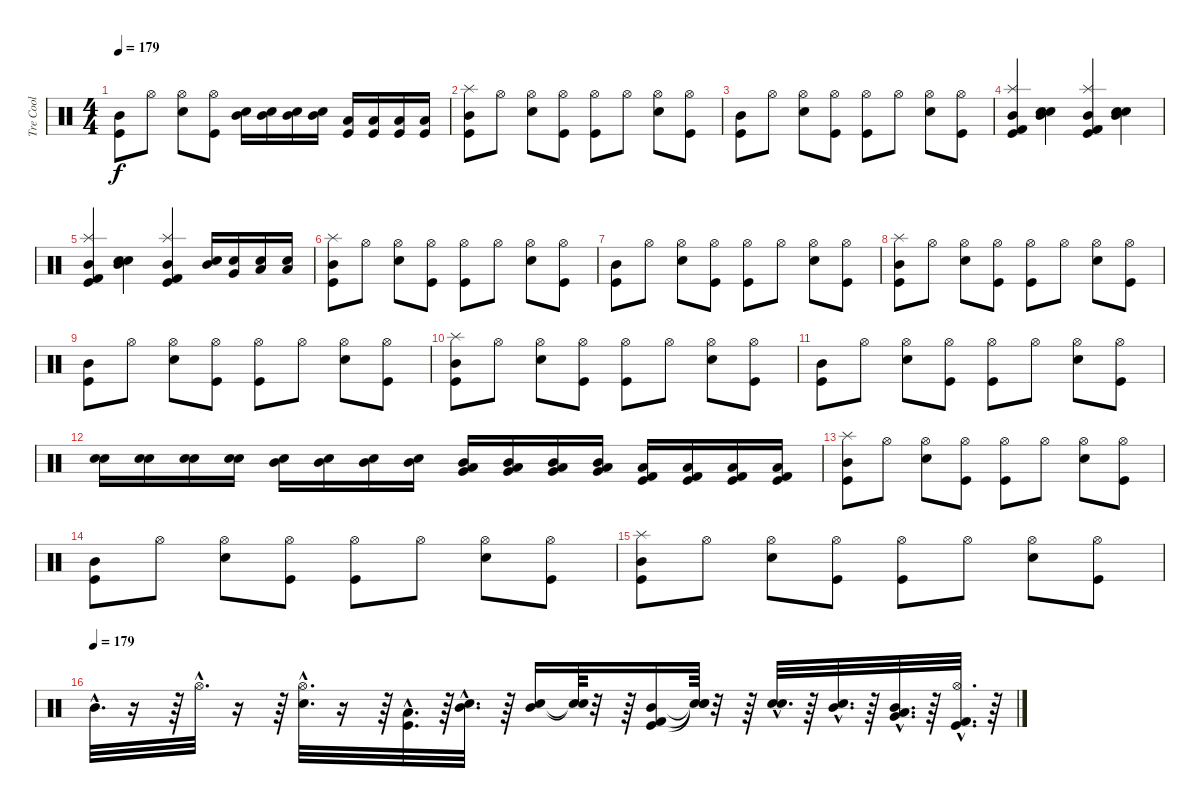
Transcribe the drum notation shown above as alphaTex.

\track ("Tre Cool" "Tre Cool") {instrument percussion}
\staff {score}
\articulation defaults
\ts (4 4)
\tempo 179
\clef neutral
\ks c
("Mid Tom (hit)" "Kick (hit)").8{dy f} "Hi-Hat (open)".8 ("Hi-Hat (open)" "Snare (hit) 2").8 ("Hi-Hat (open)" "Kick (hit)").8 ("Snare (hit) 2" "Mid Tom (hit)").16 ("Snare (hit) 2" "Mid Tom (hit)").16 ("Snare (hit) 2" "Mid Tom (hit)").16 ("Snare (hit) 2" "Mid Tom (hit)").16 ("Kick (hit)" "Low Floor Tom (hit)").16 ("Kick (hit)" "Low Floor Tom (hit)").16 ("Kick (hit)" "Low Floor Tom (hit)").16 ("Kick (hit)" "Low Floor Tom (hit)").16 |
("Splash (hit)" "Mid Tom (hit)" "Kick (hit)").8 "Hi-Hat (open)".8 ("Hi-Hat (open)" "Snare (hit) 2").8 ("Hi-Hat (open)" "Kick (hit)").8 ("Hi-Hat (open)" "Kick (hit)").8 "Hi-Hat (open)".8 ("Hi-Hat (open)" "Snare (hit) 2").8 ("Hi-Hat (open)" "Kick (hit)").8 |
("Mid Tom (hit)" "Kick (hit)").8 "Hi-Hat (open)".8 ("Hi-Hat (open)" "Snare (hit) 2").8 ("Hi-Hat (open)" "Kick (hit)").8 ("Hi-Hat (open)" "Kick (hit)").8 "Hi-Hat (open)".8 ("Hi-Hat (open)" "Snare (hit) 2").8 ("Hi-Hat (open)" "Kick (hit)").8 |
("Mid Tom (hit)" "Kick (hit)" "Splash (hit)" "Kick (hit) 2").4 ("Mid Tom (hit)" "Snare (hit) 2" "Electric Snare (hit)").4 ("Mid Tom (hit)" "Kick (hit)" "Splash (hit)" "Kick (hit) 2").4 ("Mid Tom (hit)" "Snare (hit) 2" "Electric Snare (hit)").4 |
("Mid Tom (hit)" "Kick (hit)" "Splash (hit)" "Kick (hit) 2").4 ("Mid Tom (hit)" "Snare (hit) 2" "Electric Snare (hit)").4 ("Mid Tom (hit)" "Kick (hit)" "Splash (hit)" "Kick (hit) 2").4 ("Electric Snare (hit)" "Mid Tom (hit)").16 ("Electric Snare (hit)" "Very Low Tom (hit)").16 ("Electric Snare (hit)" "Low Tom (hit)").16 ("Electric Snare (hit)" "Low Tom (hit)").16 |
("Splash (hit)" "Mid Tom (hit)" "Kick (hit)").8 "Hi-Hat (open)".8 ("Hi-Hat (open)" "Snare (hit) 2").8 ("Hi-Hat (open)" "Kick (hit)").8 ("Hi-Hat (open)" "Kick (hit)").8 "Hi-Hat (open)".8 ("Hi-Hat (open)" "Snare (hit) 2").8 ("Hi-Hat (open)" "Kick (hit)").8 |
("Mid Tom (hit)" "Kick (hit)").8 "Hi-Hat (open)".8 ("Hi-Hat (open)" "Snare (hit) 2").8 ("Hi-Hat (open)" "Kick (hit)").8 ("Hi-Hat (open)" "Kick (hit)").8 "Hi-Hat (open)".8 ("Hi-Hat (open)" "Snare (hit) 2").8 ("Hi-Hat (open)" "Kick (hit)").8 |
("Splash (hit)" "Mid Tom (hit)" "Kick (hit)").8 "Hi-Hat (open)".8 ("Hi-Hat (open)" "Snare (hit) 2").8 ("Hi-Hat (open)" "Kick (hit)").8 ("Hi-Hat (open)" "Kick (hit)").8 "Hi-Hat (open)".8 ("Hi-Hat (open)" "Snare (hit) 2").8 ("Hi-Hat (open)" "Kick (hit)").8 |
("Mid Tom (hit)" "Kick (hit)").8 "Hi-Hat (open)".8 ("Hi-Hat (open)" "Snare (hit) 2").8 ("Hi-Hat (open)" "Kick (hit)").8 ("Hi-Hat (open)" "Kick (hit)").8 "Hi-Hat (open)".8 ("Hi-Hat (open)" "Snare (hit) 2").8 ("Hi-Hat (open)" "Kick (hit)").8 |
("Splash (hit)" "Mid Tom (hit)" "Kick (hit)").8 "Hi-Hat (open)".8 ("Hi-Hat (open)" "Snare (hit) 2").8 ("Hi-Hat (open)" "Kick (hit)").8 ("Hi-Hat (open)" "Kick (hit)").8 "Hi-Hat (open)".8 ("Hi-Hat (open)" "Snare (hit) 2").8 ("Hi-Hat (open)" "Kick (hit)").8 |
("Mid Tom (hit)" "Kick (hit)").8 "Hi-Hat (open)".8 ("Hi-Hat (open)" "Snare (hit) 2").8 ("Hi-Hat (open)" "Kick (hit)").8 ("Hi-Hat (open)" "Kick (hit)").8 "Hi-Hat (open)".8 ("Hi-Hat (open)" "Snare (hit) 2").8 ("Hi-Hat (open)" "Kick (hit)").8 |
("Electric Snare (hit)" "Snare (hit) 2").16 ("Electric Snare (hit)" "Snare (hit) 2").16 ("Electric Snare (hit)" "Snare (hit) 2").16 ("Electric Snare (hit)" "Snare (hit) 2").16 ("Snare (hit) 2" "Mid Tom (hit)").16 ("Snare (hit) 2" "Mid Tom (hit)").16 ("Snare (hit) 2" "Mid Tom (hit)").16 ("Snare (hit) 2" "Mid Tom (hit)").16 ("Mid Tom (hit)" "Very Low Tom (hit)" "Low Floor Tom (hit)").16 ("Mid Tom (hit)" "Very Low Tom (hit)" "Low Floor Tom (hit)").16 ("Mid Tom (hit)" "Very Low Tom (hit)" "Low Floor Tom (hit)").16 ("Mid Tom (hit)" "Very Low Tom (hit)" "Low Floor Tom (hit)").16 ("Kick (hit)" "Kick (hit) 2" "Low Floor Tom (hit)").16 ("Kick (hit)" "Kick (hit) 2" "Low Floor Tom (hit)").16 ("Kick (hit)" "Kick (hit) 2" "Low Floor Tom (hit)").16 ("Kick (hit)" "Kick (hit) 2" "Low Floor Tom (hit)").16 |
("Splash (hit)" "Mid Tom (hit)" "Kick (hit)").8 "Hi-Hat (open)".8 ("Hi-Hat (open)" "Snare (hit) 2").8 ("Hi-Hat (open)" "Kick (hit)").8 ("Hi-Hat (open)" "Kick (hit)").8 "Hi-Hat (open)".8 ("Hi-Hat (open)" "Snare (hit) 2").8 ("Hi-Hat (open)" "Kick (hit)").8 |
("Mid Tom (hit)" "Kick (hit)").8 "Hi-Hat (open)".8 ("Hi-Hat (open)" "Snare (hit) 2").8 ("Hi-Hat (open)" "Kick (hit)").8 ("Hi-Hat (open)" "Kick (hit)").8 "Hi-Hat (open)".8 ("Hi-Hat (open)" "Snare (hit) 2").8 ("Hi-Hat (open)" "Kick (hit)").8 |
("Splash (hit)" "Mid Tom (hit)" "Kick (hit)").8 "Hi-Hat (open)".8 ("Hi-Hat (open)" "Snare (hit) 2").8 ("Hi-Hat (open)" "Kick (hit)").8 ("Hi-Hat (open)" "Kick (hit)").8 "Hi-Hat (open)".8 ("Hi-Hat (open)" "Snare (hit) 2").8 ("Hi-Hat (open)" "Kick (hit)").8 |
\tempo (179)
"Mid Tom (hit)"{hac}.32{d} r.16 r.64 "Hi-Hat (open)"{hac}.32{d} r.16 r.64 ("Hi-Hat (open)"{hac} "Snare (hit) 2"{hac}).32{d} r.16 r.64 ("Kick (hit)"{hac} "Low Tom (hit)"{hac}).32{d} r.64 ("Snare (hit) 2"{hac} "Mid Tom (hit)"{hac}).32{d} r.64 ("Snare (hit) 2" "Mid Tom (hit)").16 ("Snare (hit)"{t} "Snare (hit)"{t}).64 r.32 r.64 ("Mid Tom (hit)" "Kick (hit)" "Kick (hit) 2").16 ("Snare (hit)"{t} "Snare (hit)"{t} "Snare (hit)"{t}).64 r.32 r.64 ("Electric Snare (hit)"{hac} "Snare (hit) 2"{hac}).32{d} r.64 ("Snare (hit) 2"{hac} "Mid Tom (hit)"{hac}).32{d} r.64 ("Low Floor Tom (hit)"{hac} "Mid Tom (hit)"{hac} "Very Low Tom (hit)"{hac}).32{d} r.64 ("Kick (hit)"{hac} "Kick (hit) 2"{hac} "Hi-Hat (open)"{hac}).32{d} r.64
